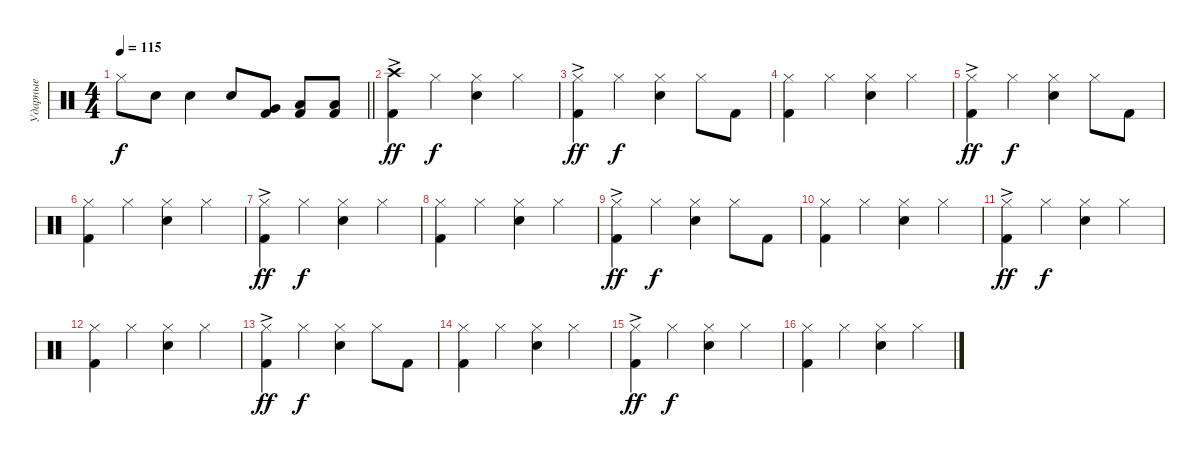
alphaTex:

\track ("Ударные" "Ударные") {instrument percussion}
\staff {score}
\articulation defaults
\ts (4 4)
\tempo 115
\clef neutral
\barLineRight lightlight
\ks c "Hi-Hat (closed)".8{dy f} "Snare (hit) 2".8 "Snare (hit) 2".4 "Snare (hit) 2".8
("Kick (hit) 2" "Very Low Tom (hit)").8 ("Kick (hit) 2" "Low Floor Tom (hit)").8 ("Kick (hit) 2" "Low Floor Tom (hit)").8 |
("Kick (hit) 2" "Crash high (hit)"{ac}).4{dy ff} "Hi-Hat (closed)".4{dy f} ("Snare (hit) 2" "Hi-Hat (closed)").4 "Hi-Hat (closed)".4 |
("Kick (hit) 2" "Hi-Hat (closed)"{ac}).4{dy ff} "Hi-Hat (closed)".4{dy f} ("Snare (hit) 2" "Hi-Hat (closed)").4 "Hi-Hat (closed)".8 "Kick (hit) 2".8 |
("Kick (hit) 2" "Hi-Hat (closed)").4 "Hi-Hat (closed)".4 ("Snare (hit) 2" "Hi-Hat (closed)").4 "Hi-Hat (closed)".4 |
("Kick (hit) 2" "Hi-Hat (closed)"{ac}).4{dy ff} "Hi-Hat (closed)".4{dy f} ("Snare (hit) 2" "Hi-Hat (closed)").4 "Hi-Hat (closed)".8 "Kick (hit) 2".8 |
("Kick (hit) 2" "Hi-Hat (closed)").4 "Hi-Hat (closed)".4 ("Snare (hit) 2" "Hi-Hat (closed)").4 "Hi-Hat (closed)".4 |
("Kick (hit) 2" "Hi-Hat (closed)"{ac}).4{dy ff} "Hi-Hat (closed)".4{dy f} ("Snare (hit) 2" "Hi-Hat (closed)").4 "Hi-Hat (closed)".4 |
("Kick (hit) 2" "Hi-Hat (closed)").4 "Hi-Hat (closed)".4 ("Snare (hit) 2" "Hi-Hat (closed)").4 "Hi-Hat (closed)".4 |
("Kick (hit) 2" "Hi-Hat (closed)"{ac}).4{dy ff} "Hi-Hat (closed)".4{dy f} ("Snare (hit) 2" "Hi-Hat (closed)").4 "Hi-Hat (closed)".8 "Kick (hit) 2".8 |
("Kick (hit) 2" "Hi-Hat (closed)").4 "Hi-Hat (closed)".4 ("Snare (hit) 2" "Hi-Hat (closed)").4 "Hi-Hat (closed)".4 |
("Kick (hit) 2" "Hi-Hat (closed)"{ac}).4{dy ff} "Hi-Hat (closed)".4{dy f} ("Snare (hit) 2" "Hi-Hat (closed)").4 "Hi-Hat (closed)".4 |
("Kick (hit) 2" "Hi-Hat (closed)").4 "Hi-Hat (closed)".4 ("Snare (hit) 2" "Hi-Hat (closed)").4 "Hi-Hat (closed)".4 |
("Kick (hit) 2" "Hi-Hat (closed)"{ac}).4{dy ff} "Hi-Hat (closed)".4{dy f} ("Snare (hit) 2" "Hi-Hat (closed)").4 "Hi-Hat (closed)".8 "Kick (hit) 2".8 |
("Kick (hit) 2" "Hi-Hat (closed)").4 "Hi-Hat (closed)".4 ("Snare (hit) 2" "Hi-Hat (closed)").4 "Hi-Hat (closed)".4 |
("Kick (hit) 2" "Hi-Hat (closed)"{ac}).4{dy ff} "Hi-Hat (closed)".4{dy f} ("Snare (hit) 2" "Hi-Hat (closed)").4 "Hi-Hat (closed)".4 |
("Kick (hit) 2" "Hi-Hat (closed)").4 "Hi-Hat (closed)".4 ("Snare (hit) 2" "Hi-Hat (closed)").4 "Hi-Hat (closed)".4
